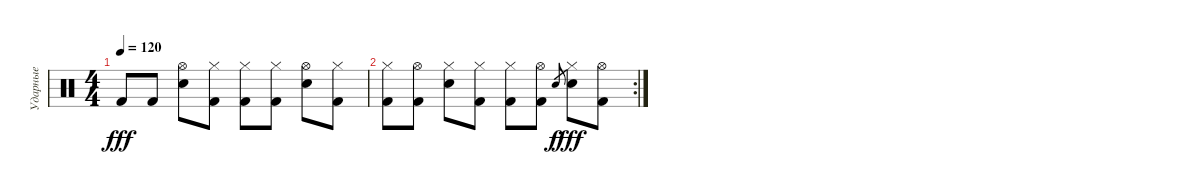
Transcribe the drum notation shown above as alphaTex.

\track ("Ударные" "Ударные") {instrument percussion}
\staff {score}
\articulation defaults
\ts (4 4)
\tempo 120
\clef neutral
\ks c "Kick (hit) 2".8{dy fff} "Kick (hit) 2".8
("Hi-Hat (open)" "Electric Snare (hit)").8 ("Hi-Hat (closed)" "Kick (hit) 2").8 ("Hi-Hat (closed)" "Kick (hit) 2").8 ("Hi-Hat (closed)" "Kick (hit) 2").8 ("Hi-Hat (open)" "Electric Snare (hit)").8 ("Hi-Hat (closed)" "Kick (hit) 2").8 |
\rc 2
("Hi-Hat (closed)" "Kick (hit) 2").8 ("Hi-Hat (open)" "Kick (hit) 2").8 ("Hi-Hat (closed)" "Electric Snare (hit)").8 ("Hi-Hat (closed)" "Kick (hit) 2").8 ("Hi-Hat (closed)" "Kick (hit) 2").8 ("Hi-Hat (open)" "Kick (hit) 2").8 "Electric Snare (hit)".8{gr dy f} ("Hi-Hat (closed)" "Electric Snare (hit)").8{dy fff} ("Hi-Hat (open)" "Kick (hit) 2").8
